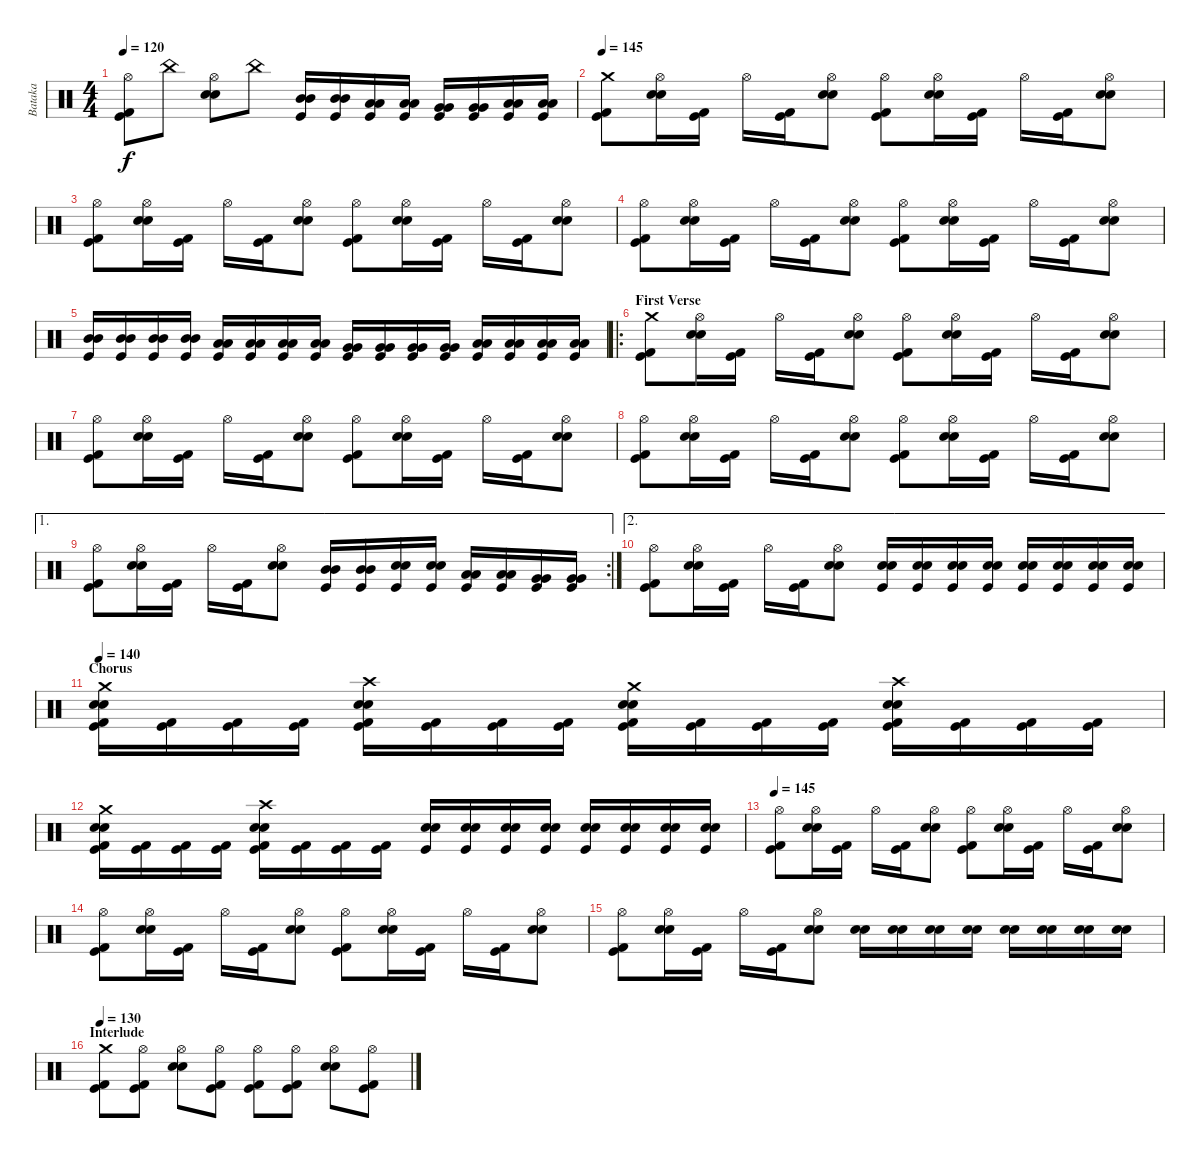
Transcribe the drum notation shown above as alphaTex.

\track ("Bataka" "Bataka") {instrument percussion}
\staff {score}
\articulation defaults
\ts (4 4)
\tempo 120
\clef neutral
\ks c
("Hi-Hat (open)" "Kick (hit) 2" "Kick (hit)").8{dy f} "China (hit)".8 ("Hi-Hat (open)" "Snare (hit) 2" "Snare (hit) 2").8 "China (hit)".8 ("Mid Tom (hit)" "Mid Tom (hit)" "Kick (hit)").16 ("Mid Tom (hit)" "Mid Tom (hit)" "Kick (hit)").16 ("Low Tom (hit)" "Low Tom (hit)" "Kick (hit)").16 ("Low Tom (hit)" "Low Tom (hit)" "Kick (hit)").16 ("Very Low Tom (hit)" "Very Low Tom (hit)" "Kick (hit)").16 ("Very Low Tom (hit)" "Very Low Tom (hit)" "Kick (hit)").16 ("Low Floor Tom (hit)" "Low Floor Tom (hit)" "Kick (hit)").16 ("Low Floor Tom (hit)" "Low Floor Tom (hit)" "Kick (hit)").16 |
\tempo 145
("Crash medium (hit)" "Kick (hit) 2" "Kick (hit)").8 ("Hi-Hat (open)" "Snare (hit) 2" "Snare (hit) 2").16 ("Kick (hit) 2" "Kick (hit)").16 "Hi-Hat (open)".16 ("Kick (hit) 2" "Kick (hit)").16 ("Hi-Hat (open)" "Snare (hit) 2" "Snare (hit) 2").8 ("Hi-Hat (open)" "Kick (hit) 2" "Kick (hit)").8 ("Hi-Hat (open)" "Snare (hit) 2" "Snare (hit) 2").16 ("Kick (hit) 2" "Kick (hit)").16 "Hi-Hat (open)".16 ("Kick (hit) 2" "Kick (hit)").16 ("Hi-Hat (open)" "Snare (hit) 2" "Snare (hit) 2").8 |
("Hi-Hat (open)" "Kick (hit) 2" "Kick (hit)").8 ("Hi-Hat (open)" "Snare (hit) 2" "Snare (hit) 2").16 ("Kick (hit) 2" "Kick (hit)").16 "Hi-Hat (open)".16 ("Kick (hit) 2" "Kick (hit)").16 ("Hi-Hat (open)" "Snare (hit) 2" "Snare (hit) 2").8 ("Hi-Hat (open)" "Kick (hit) 2" "Kick (hit)").8 ("Hi-Hat (open)" "Snare (hit) 2" "Snare (hit) 2").16 ("Kick (hit) 2" "Kick (hit)").16 "Hi-Hat (open)".16 ("Kick (hit) 2" "Kick (hit)").16 ("Hi-Hat (open)" "Snare (hit) 2" "Snare (hit) 2").8 |
("Hi-Hat (open)" "Kick (hit) 2" "Kick (hit)").8 ("Hi-Hat (open)" "Snare (hit) 2" "Snare (hit) 2").16 ("Kick (hit) 2" "Kick (hit)").16 "Hi-Hat (open)".16 ("Kick (hit) 2" "Kick (hit)").16 ("Hi-Hat (open)" "Snare (hit) 2" "Snare (hit) 2").8 ("Hi-Hat (open)" "Kick (hit) 2" "Kick (hit)").8 ("Hi-Hat (open)" "Snare (hit) 2" "Snare (hit) 2").16 ("Kick (hit) 2" "Kick (hit)").16 "Hi-Hat (open)".16 ("Kick (hit) 2" "Kick (hit)").16 ("Hi-Hat (open)" "Snare (hit) 2" "Snare (hit) 2").8 |
("Mid Tom (hit)" "Mid Tom (hit)" "Kick (hit)").16 ("Mid Tom (hit)" "Mid Tom (hit)" "Kick (hit)").16 ("Mid Tom (hit)" "Mid Tom (hit)" "Kick (hit)").16 ("Mid Tom (hit)" "Mid Tom (hit)" "Kick (hit)").16 ("Low Tom (hit)" "Low Tom (hit)" "Kick (hit)").16 ("Low Tom (hit)" "Low Tom (hit)" "Kick (hit)").16 ("Low Tom (hit)" "Low Tom (hit)" "Kick (hit)").16 ("Low Tom (hit)" "Low Tom (hit)" "Kick (hit)").16 ("Very Low Tom (hit)" "Very Low Tom (hit)" "Kick (hit)").16 ("Very Low Tom (hit)" "Very Low Tom (hit)" "Kick (hit)").16 ("Very Low Tom (hit)" "Very Low Tom (hit)" "Kick (hit)").16 ("Very Low Tom (hit)" "Very Low Tom (hit)" "Kick (hit)").16 ("Low Floor Tom (hit)" "Low Floor Tom (hit)" "Kick (hit)").16 ("Low Floor Tom (hit)" "Low Floor Tom (hit)" "Kick (hit)").16 ("Low Floor Tom (hit)" "Low Floor Tom (hit)" "Kick (hit)").16 ("Low Floor Tom (hit)" "Low Floor Tom (hit)" "Kick (hit)").16 |
\ro
\section ("" "First Verse")
("Crash medium (hit)" "Kick (hit) 2" "Kick (hit)").8 ("Hi-Hat (open)" "Snare (hit) 2" "Snare (hit) 2").16 ("Kick (hit) 2" "Kick (hit)").16 "Hi-Hat (open)".16 ("Kick (hit) 2" "Kick (hit)").16 ("Hi-Hat (open)" "Snare (hit) 2" "Snare (hit) 2").8 ("Hi-Hat (open)" "Kick (hit) 2" "Kick (hit)").8 ("Hi-Hat (open)" "Snare (hit) 2" "Snare (hit) 2").16 ("Kick (hit) 2" "Kick (hit)").16 "Hi-Hat (open)".16 ("Kick (hit) 2" "Kick (hit)").16 ("Hi-Hat (open)" "Snare (hit) 2" "Snare (hit) 2").8 |
("Hi-Hat (open)" "Kick (hit) 2" "Kick (hit)").8 ("Hi-Hat (open)" "Snare (hit) 2" "Snare (hit) 2").16 ("Kick (hit) 2" "Kick (hit)").16 "Hi-Hat (open)".16 ("Kick (hit) 2" "Kick (hit)").16 ("Hi-Hat (open)" "Snare (hit) 2" "Snare (hit) 2").8 ("Hi-Hat (open)" "Kick (hit) 2" "Kick (hit)").8 ("Hi-Hat (open)" "Snare (hit) 2" "Snare (hit) 2").16 ("Kick (hit) 2" "Kick (hit)").16 "Hi-Hat (open)".16 ("Kick (hit) 2" "Kick (hit)").16 ("Hi-Hat (open)" "Snare (hit) 2" "Snare (hit) 2").8 |
("Hi-Hat (open)" "Kick (hit) 2" "Kick (hit)").8 ("Hi-Hat (open)" "Snare (hit) 2" "Snare (hit) 2").16 ("Kick (hit) 2" "Kick (hit)").16 "Hi-Hat (open)".16 ("Kick (hit) 2" "Kick (hit)").16 ("Hi-Hat (open)" "Snare (hit) 2" "Snare (hit) 2").8 ("Hi-Hat (open)" "Kick (hit) 2" "Kick (hit)").8 ("Hi-Hat (open)" "Snare (hit) 2" "Snare (hit) 2").16 ("Kick (hit) 2" "Kick (hit)").16 "Hi-Hat (open)".16 ("Kick (hit) 2" "Kick (hit)").16 ("Hi-Hat (open)" "Snare (hit) 2" "Snare (hit) 2").8 |
\ae 1
\rc 2
("Hi-Hat (open)" "Kick (hit) 2" "Kick (hit)").8 ("Hi-Hat (open)" "Snare (hit) 2" "Snare (hit) 2").16 ("Kick (hit) 2" "Kick (hit)").16 "Hi-Hat (open)".16 ("Kick (hit) 2" "Kick (hit)").16 ("Hi-Hat (open)" "Snare (hit) 2" "Snare (hit) 2").8 ("Mid Tom (hit)" "Mid Tom (hit)" "Kick (hit)").16 ("Mid Tom (hit)" "Mid Tom (hit)" "Kick (hit)").16 ("Snare (hit) 2" "Snare (hit) 2" "Kick (hit)").16 ("Snare (hit) 2" "Snare (hit) 2" "Kick (hit)").16 ("Low Tom (hit)" "Low Tom (hit)" "Kick (hit)").16 ("Low Tom (hit)" "Low Tom (hit)" "Kick (hit)").16 ("Very Low Tom (hit)" "Very Low Tom (hit)" "Kick (hit)").16 ("Very Low Tom (hit)" "Very Low Tom (hit)" "Kick (hit)").16 |
\ae 2
("Hi-Hat (open)" "Kick (hit) 2" "Kick (hit)").8 ("Hi-Hat (open)" "Snare (hit) 2" "Snare (hit) 2").16 ("Kick (hit) 2" "Kick (hit)").16 "Hi-Hat (open)".16 ("Kick (hit) 2" "Kick (hit)").16 ("Hi-Hat (open)" "Snare (hit) 2" "Snare (hit) 2").8 ("Snare (hit) 2" "Snare (hit) 2" "Kick (hit)").16 ("Snare (hit) 2" "Snare (hit) 2" "Kick (hit)").16 ("Snare (hit) 2" "Snare (hit) 2" "Kick (hit)").16 ("Snare (hit) 2" "Snare (hit) 2" "Kick (hit)").16 ("Snare (hit) 2" "Snare (hit) 2" "Kick (hit)").16 ("Snare (hit) 2" "Snare (hit) 2" "Kick (hit)").16 ("Snare (hit) 2" "Snare (hit) 2" "Kick (hit)").16 ("Snare (hit) 2" "Snare (hit) 2" "Kick (hit)").16 |
\section ("" "Chorus")
\tempo 140
("Crash medium (hit)" "Snare (hit) 2" "Snare (hit) 2" "Kick (hit) 2" "Kick (hit)").16 ("Kick (hit) 2" "Kick (hit)").16 ("Kick (hit) 2" "Kick (hit)").16 ("Kick (hit) 2" "Kick (hit)").16 ("Crash high (hit)" "Snare (hit) 2" "Snare (hit) 2" "Kick (hit) 2" "Kick (hit)").16 ("Kick (hit) 2" "Kick (hit)").16 ("Kick (hit) 2" "Kick (hit)").16 ("Kick (hit) 2" "Kick (hit)").16 ("Crash medium (hit)" "Snare (hit) 2" "Snare (hit) 2" "Kick (hit) 2" "Kick (hit)").16 ("Kick (hit) 2" "Kick (hit)").16 ("Kick (hit) 2" "Kick (hit)").16 ("Kick (hit) 2" "Kick (hit)").16 ("Crash high (hit)" "Snare (hit) 2" "Snare (hit) 2" "Kick (hit) 2" "Kick (hit)").16 ("Kick (hit) 2" "Kick (hit)").16 ("Kick (hit) 2" "Kick (hit)").16 ("Kick (hit) 2" "Kick (hit)").16 |
("Crash medium (hit)" "Snare (hit) 2" "Snare (hit) 2" "Kick (hit) 2" "Kick (hit)").16 ("Kick (hit) 2" "Kick (hit)").16 ("Kick (hit) 2" "Kick (hit)").16 ("Kick (hit) 2" "Kick (hit)").16 ("Crash high (hit)" "Snare (hit) 2" "Snare (hit) 2" "Kick (hit) 2" "Kick (hit)").16 ("Kick (hit) 2" "Kick (hit)").16 ("Kick (hit) 2" "Kick (hit)").16 ("Kick (hit) 2" "Kick (hit)").16 ("Snare (hit) 2" "Snare (hit) 2" "Kick (hit)").16 ("Snare (hit) 2" "Snare (hit) 2" "Kick (hit)").16 ("Snare (hit) 2" "Snare (hit) 2" "Kick (hit)").16 ("Snare (hit) 2" "Snare (hit) 2" "Kick (hit)").16 ("Snare (hit) 2" "Snare (hit) 2" "Kick (hit)").16 ("Snare (hit) 2" "Snare (hit) 2" "Kick (hit)").16 ("Snare (hit) 2" "Snare (hit) 2" "Kick (hit)").16 ("Snare (hit) 2" "Snare (hit) 2" "Kick (hit)").16 |
\tempo 145
("Hi-Hat (open)" "Kick (hit) 2" "Kick (hit)").8 ("Hi-Hat (open)" "Snare (hit) 2" "Snare (hit) 2").16 ("Kick (hit) 2" "Kick (hit)").16 "Hi-Hat (open)".16 ("Kick (hit) 2" "Kick (hit)").16 ("Hi-Hat (open)" "Snare (hit) 2" "Snare (hit) 2").8 ("Hi-Hat (open)" "Kick (hit) 2" "Kick (hit)").8 ("Hi-Hat (open)" "Snare (hit) 2" "Snare (hit) 2").16 ("Kick (hit) 2" "Kick (hit)").16 "Hi-Hat (open)".16 ("Kick (hit) 2" "Kick (hit)").16 ("Hi-Hat (open)" "Snare (hit) 2" "Snare (hit) 2").8 |
("Hi-Hat (open)" "Kick (hit) 2" "Kick (hit)").8 ("Hi-Hat (open)" "Snare (hit) 2" "Snare (hit) 2").16 ("Kick (hit) 2" "Kick (hit)").16 "Hi-Hat (open)".16 ("Kick (hit) 2" "Kick (hit)").16 ("Hi-Hat (open)" "Snare (hit) 2" "Snare (hit) 2").8 ("Hi-Hat (open)" "Kick (hit) 2" "Kick (hit)").8 ("Hi-Hat (open)" "Snare (hit) 2" "Snare (hit) 2").16 ("Kick (hit) 2" "Kick (hit)").16 "Hi-Hat (open)".16 ("Kick (hit) 2" "Kick (hit)").16 ("Hi-Hat (open)" "Snare (hit) 2" "Snare (hit) 2").8 |
("Hi-Hat (open)" "Kick (hit) 2" "Kick (hit)").8 ("Hi-Hat (open)" "Snare (hit) 2" "Snare (hit) 2").16 ("Kick (hit) 2" "Kick (hit)").16 "Hi-Hat (open)".16 ("Kick (hit) 2" "Kick (hit)").16 ("Hi-Hat (open)" "Snare (hit) 2" "Snare (hit) 2").8 ("Snare (hit) 2" "Snare (hit) 2").16 ("Snare (hit) 2" "Snare (hit) 2").16 ("Snare (hit) 2" "Snare (hit) 2").16 ("Snare (hit) 2" "Snare (hit) 2").16 ("Snare (hit) 2" "Snare (hit) 2").16 ("Snare (hit) 2" "Snare (hit) 2").16 ("Snare (hit) 2" "Snare (hit) 2").16 ("Snare (hit) 2" "Snare (hit) 2").16 |
\section ("" "Interlude")
\tempo 130
("Crash medium (hit)" "Kick (hit) 2" "Kick (hit)").8 ("Hi-Hat (open)" "Kick (hit) 2" "Kick (hit)").8 ("Hi-Hat (open)" "Snare (hit) 2" "Snare (hit) 2").8 ("Hi-Hat (open)" "Kick (hit) 2" "Kick (hit)").8 ("Hi-Hat (open)" "Kick (hit) 2" "Kick (hit)").8 ("Hi-Hat (open)" "Kick (hit) 2" "Kick (hit)").8 ("Hi-Hat (open)" "Snare (hit) 2" "Snare (hit) 2").8 ("Hi-Hat (open)" "Kick (hit) 2" "Kick (hit)").8
